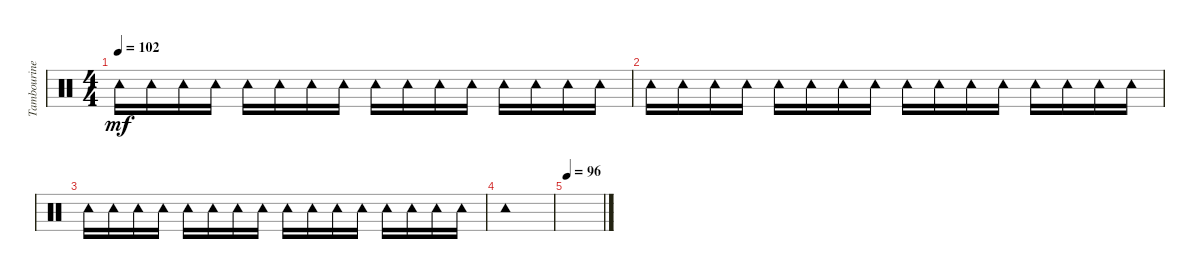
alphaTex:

\track ("Tambourine" "Tambourine") {instrument percussion}
\staff {score}
\articulation defaults
\ts (4 4)
\tempo 102
\clef neutral
\ks c "Tambourine (hit)".16{dy mf} "Tambourine (hit)".16 "Tambourine (hit)".16 "Tambourine (hit)".16 "Tambourine (hit)".16 "Tambourine (hit)".16 "Tambourine (hit)".16 "Tambourine (hit)".16 "Tambourine (hit)".16 "Tambourine (hit)".16 "Tambourine (hit)".16 "Tambourine (hit)".16 "Tambourine (hit)".16 "Tambourine (hit)".16 "Tambourine (hit)".16 "Tambourine (hit)".16
|
"Tambourine (hit)".16 "Tambourine (hit)".16 "Tambourine (hit)".16 "Tambourine (hit)".16 "Tambourine (hit)".16 "Tambourine (hit)".16 "Tambourine (hit)".16 "Tambourine (hit)".16 "Tambourine (hit)".16 "Tambourine (hit)".16 "Tambourine (hit)".16 "Tambourine (hit)".16 "Tambourine (hit)".16 "Tambourine (hit)".16 "Tambourine (hit)".16 "Tambourine (hit)".16 |
"Tambourine (hit)".16 "Tambourine (hit)".16 "Tambourine (hit)".16 "Tambourine (hit)".16 "Tambourine (hit)".16 "Tambourine (hit)".16 "Tambourine (hit)".16 "Tambourine (hit)".16 "Tambourine (hit)".16 "Tambourine (hit)".16 "Tambourine (hit)".16 "Tambourine (hit)".16 "Tambourine (hit)".16 "Tambourine (hit)".16 "Tambourine (hit)".16 "Tambourine (hit)".16 |
"Tambourine (hit)".1 |
\tempo 96
